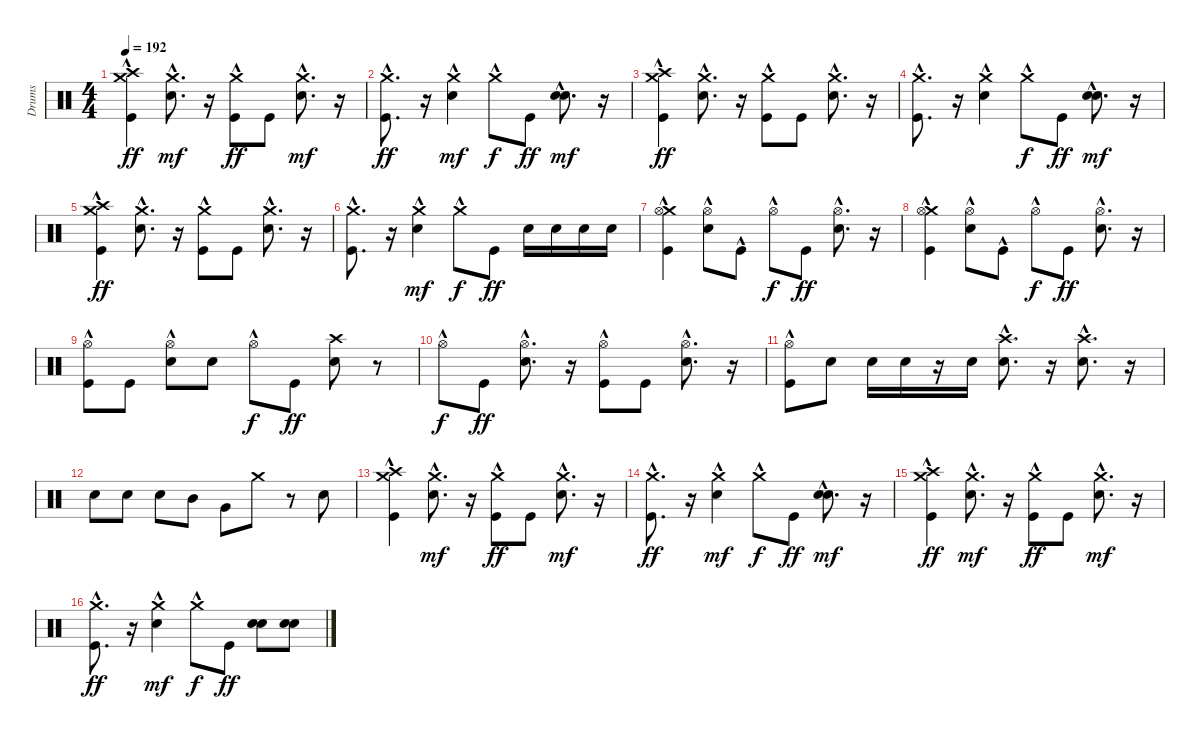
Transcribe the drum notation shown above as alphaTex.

\track ("Drums" "Drums") {instrument percussion}
\staff {score}
\articulation defaults
\ts (4 4)
\tempo 192
\clef neutral
\ks c
("Crash medium (hit)"{hac} "Kick (hit)"{hac} "Crash high (hit)"{hac}).4{dy ff} ("Electric Snare (hit)"{hac} "Crash medium (hit)"{hac}).8{d dy mf} r.16 ("Kick (hit)" "Crash medium (hit)"{hac}).8{dy ff} "Kick (hit)".8 ("Electric Snare (hit)"{hac} "Crash medium (hit)"{hac}).8{d dy mf} r.16 |
("Kick (hit)"{hac} "Crash medium (hit)"{hac}).8{d dy ff} r.16 ("Electric Snare (hit)" "Crash medium (hit)"{hac}).4{dy mf} "Crash medium (hit)"{hac}.8{dy f} "Kick (hit)".8{dy ff} ("Electric Snare (hit)"{hac} "Snare (hit) 2"{hac}).8{d dy mf} r.16 |
("Crash medium (hit)"{hac} "Kick (hit)"{hac} "Crash high (hit)"{hac}).4{dy ff} ("Crash medium (hit)"{hac} "Electric Snare (hit)"{hac}).8{d} r.16 ("Kick (hit)" "Crash medium (hit)"{hac}).8 "Kick (hit)".8 ("Crash medium (hit)"{hac} "Electric Snare (hit)"{hac}).8{d} r.16 |
("Kick (hit)"{hac} "Crash medium (hit)"{hac}).8{d} r.16 ("Crash medium (hit)"{hac} "Electric Snare (hit)").4 "Crash medium (hit)"{hac}.8{dy f} "Kick (hit)".8{dy ff} ("Electric Snare (hit)"{hac} "Snare (hit) 2"{hac}).8{d dy mf} r.16 |
("Crash medium (hit)"{hac} "Kick (hit)"{hac} "Crash high (hit)"{hac}).4{dy ff} ("Crash medium (hit)"{hac} "Electric Snare (hit)"{hac}).8{d} r.16 ("Kick (hit)" "Crash medium (hit)"{hac}).8 "Kick (hit)".8 ("Crash medium (hit)"{hac} "Electric Snare (hit)"{hac}).8{d} r.16 |
("Kick (hit)"{hac} "Crash medium (hit)"{hac}).8{d} r.16 ("Electric Snare (hit)" "Crash medium (hit)"{hac}).4{dy mf} "Crash medium (hit)"{hac}.8{dy f} "Kick (hit)".8{dy ff} "Electric Snare (hit)".16 "Electric Snare (hit)".16 "Electric Snare (hit)".16 "Electric Snare (hit)".16 |
("Crash medium (hit)"{hac} "Hi-Hat (open)"{hac} "Kick (hit)"{hac}).4 ("Electric Snare (hit)" "Hi-Hat (open)"{hac}).8 "Kick (hit)"{hac}.8 "Hi-Hat (open)"{hac}.8{dy f} "Kick (hit)".8{dy ff} ("Hi-Hat (open)"{hac} "Electric Snare (hit)"{hac}).8{d} r.16 |
("Crash medium (hit)"{hac} "Hi-Hat (open)"{hac} "Kick (hit)"{hac}).4 ("Hi-Hat (open)"{hac} "Electric Snare (hit)").8 "Kick (hit)"{hac}.8 "Hi-Hat (open)"{hac}.8{dy f} "Kick (hit)".8{dy ff} ("Hi-Hat (open)"{hac} "Electric Snare (hit)"{hac}).8{d} r.16 |
("Kick (hit)" "Hi-Hat (open)"{hac}).8 "Kick (hit)".8 ("Hi-Hat (open)"{hac} "Electric Snare (hit)").8 "Electric Snare (hit)".8 "Hi-Hat (open)"{hac}.8{dy f} "Kick (hit)".8{dy ff} ("Electric Snare (hit)" "Crash high (hit)").8 r.8 |
"Hi-Hat (open)"{hac}.8{dy f} "Kick (hit)".8{dy ff} ("Electric Snare (hit)"{hac} "Hi-Hat (open)"{hac}).8{d} r.16 ("Hi-Hat (open)"{hac} "Kick (hit)").8 "Kick (hit)".8 ("Hi-Hat (open)"{hac} "Electric Snare (hit)"{hac}).8{d} r.16 |
("Kick (hit)" "Hi-Hat (open)"{hac}).8 "Electric Snare (hit)".8 "Electric Snare (hit)".16 "Electric Snare (hit)".16 r.16 "Electric Snare (hit)".16 ("Electric Snare (hit)"{hac} "Crash high (hit)"{hac}).8{d} r.16 ("Crash high (hit)"{hac} "Electric Snare (hit)"{hac}).8{d} r.16 |
"Electric Snare (hit)".8 "Electric Snare (hit)".8 "Electric Snare (hit)".8 "Mid Tom (hit)".8 "Very Low Tom (hit)".8 "Crash medium (hit)".8 r.8 "Electric Snare (hit)".8 |
("Crash medium (hit)"{hac} "Crash high (hit)"{hac} "Kick (hit)"{hac}).4 ("Electric Snare (hit)"{hac} "Crash medium (hit)"{hac}).8{d dy mf} r.16 ("Kick (hit)" "Crash medium (hit)"{hac}).8{dy ff} "Kick (hit)".8 ("Electric Snare (hit)"{hac} "Crash medium (hit)"{hac}).8{d dy mf} r.16 |
("Kick (hit)"{hac} "Crash medium (hit)"{hac}).8{d dy ff} r.16 ("Electric Snare (hit)" "Crash medium (hit)"{hac}).4{dy mf} "Crash medium (hit)"{hac}.8{dy f} "Kick (hit)".8{dy ff} ("Electric Snare (hit)"{hac} "Snare (hit) 2"{hac}).8{d dy mf} r.16 |
("Crash medium (hit)"{hac} "Crash high (hit)"{hac} "Kick (hit)"{hac}).4{dy ff} ("Electric Snare (hit)"{hac} "Crash medium (hit)"{hac}).8{d dy mf} r.16 ("Kick (hit)" "Crash medium (hit)"{hac}).8{dy ff} "Kick (hit)".8 ("Electric Snare (hit)"{hac} "Crash medium (hit)"{hac}).8{d dy mf} r.16 |
("Crash medium (hit)"{hac} "Kick (hit)"{hac}).8{d dy ff} r.16 ("Electric Snare (hit)" "Crash medium (hit)"{hac}).4{dy mf} "Crash medium (hit)"{hac}.8{dy f} "Kick (hit)".8{dy ff} ("Snare (hit) 2" "Electric Snare (hit)").8 ("Snare (hit) 2" "Electric Snare (hit)").8
